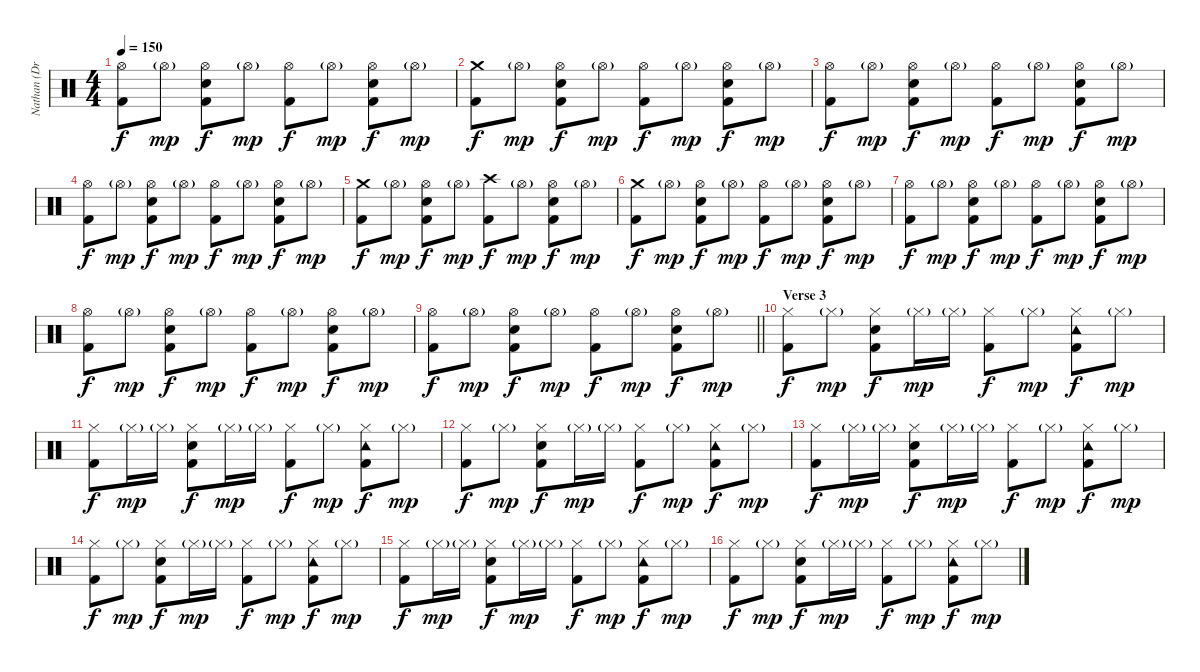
\track ("Nathan (Drums)" "Nathan (Dr") {instrument percussion}
\staff {score}
\articulation defaults
\ts (4 4)
\tempo 150
\clef neutral
\ks c
("Hi-Hat (open)" "Kick (hit) 2").8{dy f} "Hi-Hat (open)"{g}.8{dy mp} ("Hi-Hat (open)" "Electric Snare (hit)" "Kick (hit) 2").8{dy f} "Hi-Hat (open)"{g}.8{dy mp} ("Hi-Hat (open)" "Kick (hit) 2").8{dy f} "Hi-Hat (open)"{g}.8{dy mp} ("Hi-Hat (open)" "Electric Snare (hit)" "Kick (hit) 2").8{dy f} "Hi-Hat (open)"{g}.8{dy mp} |
("Crash medium (hit)" "Kick (hit) 2").8{dy f} "Hi-Hat (open)"{g}.8{dy mp} ("Hi-Hat (open)" "Electric Snare (hit)" "Kick (hit) 2").8{dy f} "Hi-Hat (open)"{g}.8{dy mp} ("Hi-Hat (open)" "Kick (hit) 2").8{dy f} "Hi-Hat (open)"{g}.8{dy mp} ("Hi-Hat (open)" "Electric Snare (hit)" "Kick (hit) 2").8{dy f} "Hi-Hat (open)"{g}.8{dy mp} |
("Hi-Hat (open)" "Kick (hit) 2").8{dy f} "Hi-Hat (open)"{g}.8{dy mp} ("Hi-Hat (open)" "Electric Snare (hit)" "Kick (hit) 2").8{dy f} "Hi-Hat (open)"{g}.8{dy mp} ("Hi-Hat (open)" "Kick (hit) 2").8{dy f} "Hi-Hat (open)"{g}.8{dy mp} ("Hi-Hat (open)" "Electric Snare (hit)" "Kick (hit) 2").8{dy f} "Hi-Hat (open)"{g}.8{dy mp} |
("Hi-Hat (open)" "Kick (hit) 2").8{dy f} "Hi-Hat (open)"{g}.8{dy mp} ("Hi-Hat (open)" "Electric Snare (hit)" "Kick (hit) 2").8{dy f} "Hi-Hat (open)"{g}.8{dy mp} ("Hi-Hat (open)" "Kick (hit) 2").8{dy f} "Hi-Hat (open)"{g}.8{dy mp} ("Hi-Hat (open)" "Electric Snare (hit)" "Kick (hit) 2").8{dy f} "Hi-Hat (open)"{g}.8{dy mp} |
("Crash medium (hit)" "Kick (hit) 2").8{dy f} "Hi-Hat (open)"{g}.8{dy mp} ("Hi-Hat (open)" "Electric Snare (hit)" "Kick (hit) 2").8{dy f} "Hi-Hat (open)"{g}.8{dy mp} ("Crash high (hit)" "Kick (hit) 2").8{dy f} "Hi-Hat (open)"{g}.8{dy mp} ("Hi-Hat (open)" "Electric Snare (hit)" "Kick (hit) 2").8{dy f} "Hi-Hat (open)"{g}.8{dy mp} |
("Crash medium (hit)" "Kick (hit) 2").8{dy f} "Hi-Hat (open)"{g}.8{dy mp} ("Hi-Hat (open)" "Electric Snare (hit)" "Kick (hit) 2").8{dy f} "Hi-Hat (open)"{g}.8{dy mp} ("Hi-Hat (open)" "Kick (hit) 2").8{dy f} "Hi-Hat (open)"{g}.8{dy mp} ("Hi-Hat (open)" "Electric Snare (hit)" "Kick (hit) 2").8{dy f} "Hi-Hat (open)"{g}.8{dy mp} |
("Hi-Hat (open)" "Kick (hit) 2").8{dy f} "Hi-Hat (open)"{g}.8{dy mp} ("Hi-Hat (open)" "Electric Snare (hit)" "Kick (hit) 2").8{dy f} "Hi-Hat (open)"{g}.8{dy mp} ("Hi-Hat (open)" "Kick (hit) 2").8{dy f} "Hi-Hat (open)"{g}.8{dy mp} ("Hi-Hat (open)" "Electric Snare (hit)" "Kick (hit) 2").8{dy f} "Hi-Hat (open)"{g}.8{dy mp} |
("Hi-Hat (open)" "Kick (hit) 2").8{dy f} "Hi-Hat (open)"{g}.8{dy mp} ("Hi-Hat (open)" "Electric Snare (hit)" "Kick (hit) 2").8{dy f} "Hi-Hat (open)"{g}.8{dy mp} ("Hi-Hat (open)" "Kick (hit) 2").8{dy f} "Hi-Hat (open)"{g}.8{dy mp} ("Hi-Hat (open)" "Electric Snare (hit)" "Kick (hit) 2").8{dy f} "Hi-Hat (open)"{g}.8{dy mp} |
\barLineRight lightlight
("Hi-Hat (open)" "Kick (hit) 2").8{dy f} "Hi-Hat (open)"{g}.8{dy mp} ("Hi-Hat (open)" "Electric Snare (hit)" "Kick (hit) 2").8{dy f} "Hi-Hat (open)"{g}.8{dy mp} ("Hi-Hat (open)" "Kick (hit) 2").8{dy f} "Hi-Hat (open)"{g}.8{dy mp} ("Hi-Hat (open)" "Electric Snare (hit)" "Kick (hit) 2").8{dy f} "Hi-Hat (open)"{g}.8{dy mp} |
\section ("" "Verse 3")
("Hi-Hat (closed)" "Kick (hit) 2").8{dy f} "Hi-Hat (closed)"{g}.8{dy mp} ("Hi-Hat (closed)" "Electric Snare (hit)" "Kick (hit) 2").8{dy f} "Hi-Hat (closed)"{g}.16{dy mp} "Hi-Hat (closed)"{g}.16 ("Hi-Hat (closed)" "Kick (hit) 2").8{dy f} "Hi-Hat (closed)"{g}.8{dy mp} ("Hi-Hat (closed)" "Tambourine (hit)" "Kick (hit) 2").8{dy f} "Hi-Hat (closed)"{g}.8{dy mp} |
("Hi-Hat (closed)" "Kick (hit) 2").8{dy f} "Hi-Hat (closed)"{g}.16{dy mp} "Hi-Hat (closed)"{g}.16 ("Hi-Hat (closed)" "Electric Snare (hit)" "Kick (hit) 2").8{dy f} "Hi-Hat (closed)"{g}.16{dy mp} "Hi-Hat (closed)"{g}.16 ("Hi-Hat (closed)" "Kick (hit) 2").8{dy f} "Hi-Hat (closed)"{g}.8{dy mp} ("Hi-Hat (closed)" "Tambourine (hit)" "Kick (hit) 2").8{dy f} "Hi-Hat (closed)"{g}.8{dy mp} |
("Hi-Hat (closed)" "Kick (hit) 2").8{dy f} "Hi-Hat (closed)"{g}.8{dy mp} ("Hi-Hat (closed)" "Electric Snare (hit)" "Kick (hit) 2").8{dy f} "Hi-Hat (closed)"{g}.16{dy mp} "Hi-Hat (closed)"{g}.16 ("Hi-Hat (closed)" "Kick (hit) 2").8{dy f} "Hi-Hat (closed)"{g}.8{dy mp} ("Hi-Hat (closed)" "Tambourine (hit)" "Kick (hit) 2").8{dy f} "Hi-Hat (closed)"{g}.8{dy mp} |
("Hi-Hat (closed)" "Kick (hit) 2").8{dy f} "Hi-Hat (closed)"{g}.16{dy mp} "Hi-Hat (closed)"{g}.16 ("Hi-Hat (closed)" "Electric Snare (hit)" "Kick (hit) 2").8{dy f} "Hi-Hat (closed)"{g}.16{dy mp} "Hi-Hat (closed)"{g}.16 ("Hi-Hat (closed)" "Kick (hit) 2").8{dy f} "Hi-Hat (closed)"{g}.8{dy mp} ("Hi-Hat (closed)" "Tambourine (hit)" "Kick (hit) 2").8{dy f} "Hi-Hat (closed)"{g}.8{dy mp} |
("Hi-Hat (closed)" "Kick (hit) 2").8{dy f} "Hi-Hat (closed)"{g}.8{dy mp} ("Hi-Hat (closed)" "Electric Snare (hit)" "Kick (hit) 2").8{dy f} "Hi-Hat (closed)"{g}.16{dy mp} "Hi-Hat (closed)"{g}.16 ("Hi-Hat (closed)" "Kick (hit) 2").8{dy f} "Hi-Hat (closed)"{g}.8{dy mp} ("Hi-Hat (closed)" "Tambourine (hit)" "Kick (hit) 2").8{dy f} "Hi-Hat (closed)"{g}.8{dy mp} |
("Hi-Hat (closed)" "Kick (hit) 2").8{dy f} "Hi-Hat (closed)"{g}.16{dy mp} "Hi-Hat (closed)"{g}.16 ("Hi-Hat (closed)" "Electric Snare (hit)" "Kick (hit) 2").8{dy f} "Hi-Hat (closed)"{g}.16{dy mp} "Hi-Hat (closed)"{g}.16 ("Hi-Hat (closed)" "Kick (hit) 2").8{dy f} "Hi-Hat (closed)"{g}.8{dy mp} ("Hi-Hat (closed)" "Tambourine (hit)" "Kick (hit) 2").8{dy f} "Hi-Hat (closed)"{g}.8{dy mp} |
("Hi-Hat (closed)" "Kick (hit) 2").8{dy f} "Hi-Hat (closed)"{g}.8{dy mp} ("Hi-Hat (closed)" "Electric Snare (hit)" "Kick (hit) 2").8{dy f} "Hi-Hat (closed)"{g}.16{dy mp} "Hi-Hat (closed)"{g}.16 ("Hi-Hat (closed)" "Kick (hit) 2").8{dy f} "Hi-Hat (closed)"{g}.8{dy mp} ("Hi-Hat (closed)" "Tambourine (hit)" "Kick (hit) 2").8{dy f} "Hi-Hat (closed)"{g}.8{dy mp}
